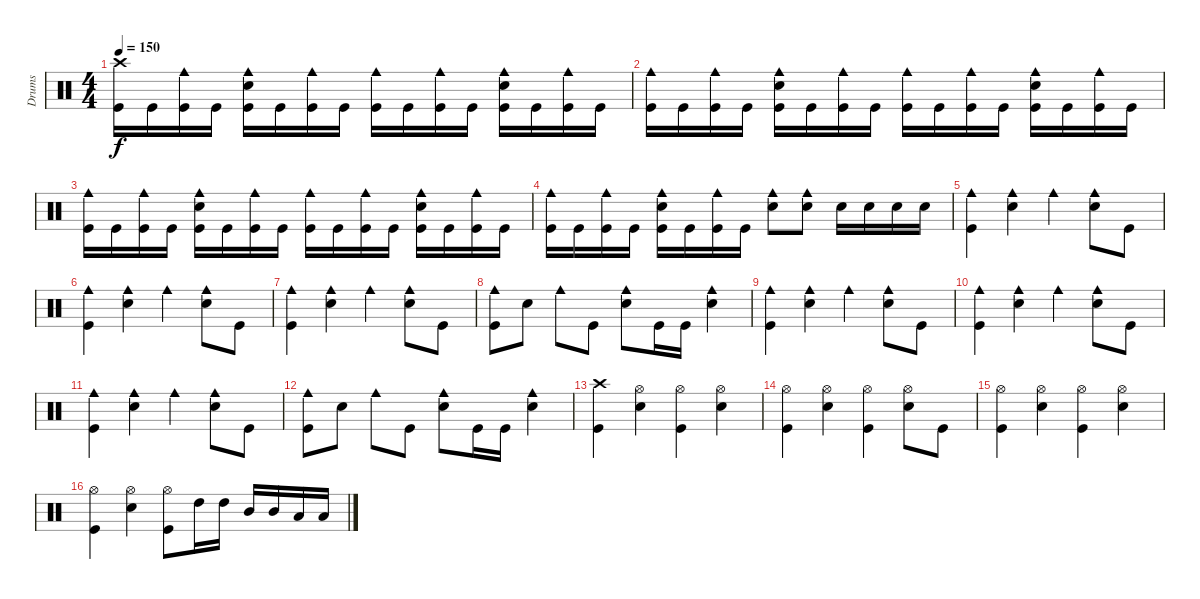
\track ("Drums" "Drums") {instrument percussion}
\staff {score}
\articulation defaults
\ts (4 4)
\tempo 150
\clef neutral
\ks c
("Crash high (hit)" "Kick (hit)").16{dy f} "Kick (hit)".16 ("Cowbell medium (hit)" "Kick (hit)").16 "Kick (hit)".16 ("Cowbell medium (hit)" "Electric Snare (hit)" "Kick (hit)").16 "Kick (hit)".16 ("Cowbell medium (hit)" "Kick (hit)").16 "Kick (hit)".16 ("Cowbell medium (hit)" "Kick (hit)").16 "Kick (hit)".16 ("Cowbell medium (hit)" "Kick (hit)").16 "Kick (hit)".16 ("Cowbell medium (hit)" "Electric Snare (hit)" "Kick (hit)").16 "Kick (hit)".16 ("Cowbell medium (hit)" "Kick (hit)").16 "Kick (hit)".16 |
("Cowbell medium (hit)" "Kick (hit)").16 "Kick (hit)".16 ("Cowbell medium (hit)" "Kick (hit)").16 "Kick (hit)".16 ("Cowbell medium (hit)" "Electric Snare (hit)" "Kick (hit)").16 "Kick (hit)".16 ("Cowbell medium (hit)" "Kick (hit)").16 "Kick (hit)".16 ("Cowbell medium (hit)" "Kick (hit)").16 "Kick (hit)".16 ("Cowbell medium (hit)" "Kick (hit)").16 "Kick (hit)".16 ("Cowbell medium (hit)" "Electric Snare (hit)" "Kick (hit)").16 "Kick (hit)".16 ("Cowbell medium (hit)" "Kick (hit)").16 "Kick (hit)".16 |
("Cowbell medium (hit)" "Kick (hit)").16 "Kick (hit)".16 ("Cowbell medium (hit)" "Kick (hit)").16 "Kick (hit)".16 ("Cowbell medium (hit)" "Electric Snare (hit)" "Kick (hit)").16 "Kick (hit)".16 ("Cowbell medium (hit)" "Kick (hit)").16 "Kick (hit)".16 ("Cowbell medium (hit)" "Kick (hit)").16 "Kick (hit)".16 ("Cowbell medium (hit)" "Kick (hit)").16 "Kick (hit)".16 ("Cowbell medium (hit)" "Electric Snare (hit)" "Kick (hit)").16 "Kick (hit)".16 ("Cowbell medium (hit)" "Kick (hit)").16 "Kick (hit)".16 |
("Cowbell medium (hit)" "Kick (hit)").16 "Kick (hit)".16 ("Cowbell medium (hit)" "Kick (hit)").16 "Kick (hit)".16 ("Cowbell medium (hit)" "Electric Snare (hit)" "Kick (hit)").16 "Kick (hit)".16 ("Cowbell medium (hit)" "Kick (hit)").16 "Kick (hit)".16 ("Cowbell medium (hit)" "Electric Snare (hit)").8 ("Cowbell medium (hit)" "Electric Snare (hit)").8 "Electric Snare (hit)".16 "Electric Snare (hit)".16 "Electric Snare (hit)".16 "Electric Snare (hit)".16 |
("Cowbell medium (hit)" "Kick (hit)").4 ("Cowbell medium (hit)" "Electric Snare (hit)").4 "Cowbell medium (hit)".4 ("Cowbell medium (hit)" "Electric Snare (hit)").8 "Kick (hit)".8 |
("Cowbell medium (hit)" "Kick (hit)").4 ("Cowbell medium (hit)" "Electric Snare (hit)").4 "Cowbell medium (hit)".4 ("Cowbell medium (hit)" "Electric Snare (hit)").8 "Kick (hit)".8 |
("Cowbell medium (hit)" "Kick (hit)").4 ("Cowbell medium (hit)" "Electric Snare (hit)").4 "Cowbell medium (hit)".4 ("Cowbell medium (hit)" "Electric Snare (hit)").8 "Kick (hit)".8 |
("Cowbell medium (hit)" "Kick (hit)").8 "Electric Snare (hit)".8 "Cowbell medium (hit)".8 "Kick (hit)".8 ("Cowbell medium (hit)" "Electric Snare (hit)").8 "Kick (hit)".16 "Kick (hit)".16 ("Cowbell medium (hit)" "Electric Snare (hit)").4 |
("Cowbell medium (hit)" "Kick (hit)").4 ("Cowbell medium (hit)" "Electric Snare (hit)").4 "Cowbell medium (hit)".4 ("Cowbell medium (hit)" "Electric Snare (hit)").8 "Kick (hit)".8 |
("Cowbell medium (hit)" "Kick (hit)").4 ("Cowbell medium (hit)" "Electric Snare (hit)").4 "Cowbell medium (hit)".4 ("Cowbell medium (hit)" "Electric Snare (hit)").8 "Kick (hit)".8 |
("Cowbell medium (hit)" "Kick (hit)").4 ("Cowbell medium (hit)" "Electric Snare (hit)").4 "Cowbell medium (hit)".4 ("Cowbell medium (hit)" "Electric Snare (hit)").8 "Kick (hit)".8 |
("Cowbell medium (hit)" "Kick (hit)").8 "Electric Snare (hit)".8 "Cowbell medium (hit)".8 "Kick (hit)".8 ("Cowbell medium (hit)" "Electric Snare (hit)").8 "Kick (hit)".16 "Kick (hit)".16 ("Cowbell medium (hit)" "Electric Snare (hit)").4 |
("Crash high (hit)" "Kick (hit)").4 ("Hi-Hat (open)" "Electric Snare (hit)").4 ("Hi-Hat (open)" "Kick (hit)").4 ("Hi-Hat (open)" "Electric Snare (hit)").4 |
("Hi-Hat (open)" "Kick (hit)").4 ("Hi-Hat (open)" "Electric Snare (hit)").4 ("Hi-Hat (open)" "Kick (hit)").4 ("Hi-Hat (open)" "Electric Snare (hit)").8 "Kick (hit)".8 |
("Hi-Hat (open)" "Kick (hit)").4 ("Hi-Hat (open)" "Electric Snare (hit)").4 ("Hi-Hat (open)" "Kick (hit)").4 ("Hi-Hat (open)" "Electric Snare (hit)").4 |
("Hi-Hat (open)" "Kick (hit)").4 ("Hi-Hat (open)" "Electric Snare (hit)").4 ("Hi-Hat (open)" "Kick (hit)").8 "High Tom (hit)".16 "High Tom (hit)".16 "Mid Tom (hit)".16 "Mid Tom (hit)".16 "Low Tom (hit)".16 "Low Tom (hit)".16
